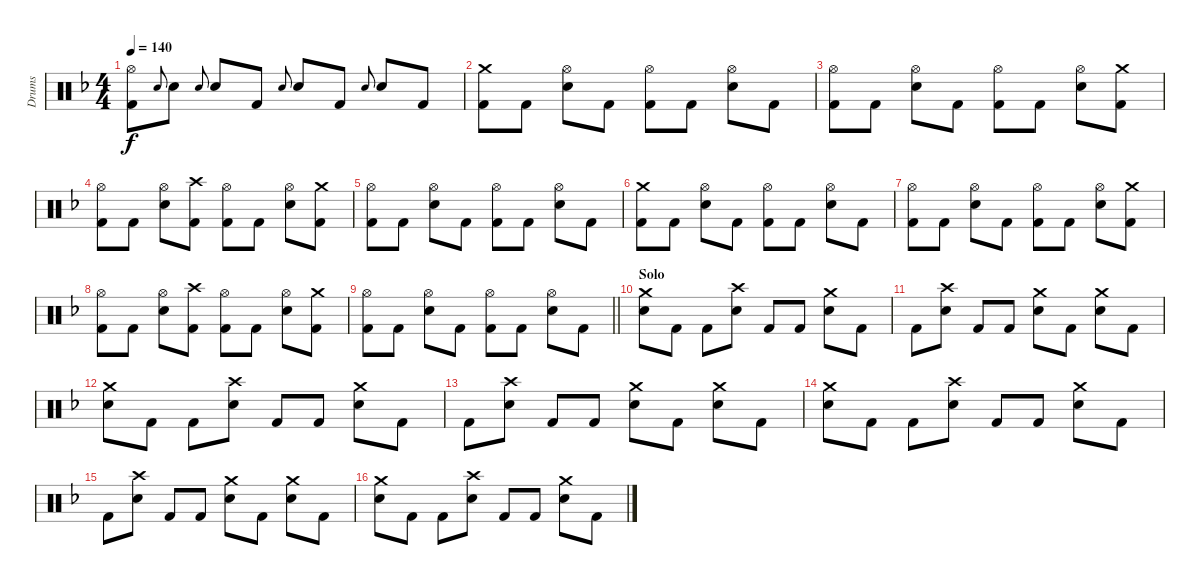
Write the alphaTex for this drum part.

\track ("Drums" "Drums") {instrument percussion}
\staff {score}
\articulation defaults
\ts (4 4)
\tempo 140
\clef neutral
\ks dminor
("Kick (hit) 2" "Hi-Hat (open)").8{dy f} "Electric Snare (hit)".8{gr onbeat} "Electric Snare (hit)".8 "Electric Snare (hit)".8{gr onbeat} "Electric Snare (hit)".8 "Kick (hit) 2".8 "Electric Snare (hit)".8{gr onbeat} "Electric Snare (hit)".8 "Kick (hit) 2".8 "Electric Snare (hit)".8{gr onbeat} "Electric Snare (hit)".8 "Kick (hit) 2".8 |
("Kick (hit) 2" "Crash medium (hit)").8 "Kick (hit) 2".8 ("Hi-Hat (open)" "Electric Snare (hit)").8 "Kick (hit) 2".8 ("Hi-Hat (open)" "Kick (hit) 2").8 "Kick (hit) 2".8 ("Hi-Hat (open)" "Electric Snare (hit)").8 "Kick (hit) 2".8 |
("Kick (hit) 2" "Hi-Hat (open)").8 "Kick (hit) 2".8 ("Hi-Hat (open)" "Electric Snare (hit)").8 "Kick (hit) 2".8 ("Hi-Hat (open)" "Kick (hit) 2").8 "Kick (hit) 2".8 ("Hi-Hat (open)" "Electric Snare (hit)").8 ("Crash medium (hit)" "Kick (hit) 2").8 |
("Kick (hit) 2" "Hi-Hat (open)").8 "Kick (hit) 2".8 ("Hi-Hat (open)" "Electric Snare (hit)").8 ("Crash high (hit)" "Kick (hit) 2").8 ("Hi-Hat (open)" "Kick (hit) 2").8 "Kick (hit) 2".8 ("Hi-Hat (open)" "Electric Snare (hit)").8 ("Crash medium (hit)" "Kick (hit) 2").8 |
("Kick (hit) 2" "Hi-Hat (open)").8 "Kick (hit) 2".8 ("Hi-Hat (open)" "Electric Snare (hit)").8 "Kick (hit) 2".8 ("Kick (hit) 2" "Hi-Hat (open)").8 "Kick (hit) 2".8 ("Hi-Hat (open)" "Electric Snare (hit)").8 "Kick (hit) 2".8 |
("Kick (hit) 2" "Crash medium (hit)").8 "Kick (hit) 2".8 ("Hi-Hat (open)" "Electric Snare (hit)").8 "Kick (hit) 2".8 ("Hi-Hat (open)" "Kick (hit) 2").8 "Kick (hit) 2".8 ("Hi-Hat (open)" "Electric Snare (hit)").8 "Kick (hit) 2".8 |
("Kick (hit) 2" "Hi-Hat (open)").8 "Kick (hit) 2".8 ("Hi-Hat (open)" "Electric Snare (hit)").8 "Kick (hit) 2".8 ("Hi-Hat (open)" "Kick (hit) 2").8 "Kick (hit) 2".8 ("Hi-Hat (open)" "Electric Snare (hit)").8 ("Crash medium (hit)" "Kick (hit) 2").8 |
("Kick (hit) 2" "Hi-Hat (open)").8 "Kick (hit) 2".8 ("Hi-Hat (open)" "Electric Snare (hit)").8 ("Crash high (hit)" "Kick (hit) 2").8 ("Hi-Hat (open)" "Kick (hit) 2").8 "Kick (hit) 2".8 ("Hi-Hat (open)" "Electric Snare (hit)").8 ("Crash medium (hit)" "Kick (hit) 2").8 |
\barLineRight lightlight
("Kick (hit) 2" "Hi-Hat (open)").8 "Kick (hit) 2".8 ("Hi-Hat (open)" "Electric Snare (hit)").8 "Kick (hit) 2".8 ("Kick (hit) 2" "Hi-Hat (open)").8 "Kick (hit) 2".8 ("Hi-Hat (open)" "Electric Snare (hit)").8 "Kick (hit) 2".8 |
\section ("" "Solo")
("Electric Snare (hit)" "Crash medium (hit)").8 "Kick (hit) 2".8 "Kick (hit) 2".8 ("Crash high (hit)" "Electric Snare (hit)").8 "Kick (hit) 2".8 "Kick (hit) 2".8 ("Electric Snare (hit)" "Crash medium (hit)").8 "Kick (hit) 2".8 |
"Kick (hit) 2".8 ("Electric Snare (hit)" "Crash high (hit)").8 "Kick (hit) 2".8 "Kick (hit) 2".8 ("Electric Snare (hit)" "Crash medium (hit)").8 "Kick (hit) 2".8 ("Electric Snare (hit)" "Crash medium (hit)").8 "Kick (hit) 2".8 |
("Electric Snare (hit)" "Crash medium (hit)").8 "Kick (hit) 2".8 "Kick (hit) 2".8 ("Crash high (hit)" "Electric Snare (hit)").8 "Kick (hit) 2".8 "Kick (hit) 2".8 ("Electric Snare (hit)" "Crash medium (hit)").8 "Kick (hit) 2".8 |
"Kick (hit) 2".8 ("Electric Snare (hit)" "Crash high (hit)").8 "Kick (hit) 2".8 "Kick (hit) 2".8 ("Electric Snare (hit)" "Crash medium (hit)").8 "Kick (hit) 2".8 ("Electric Snare (hit)" "Crash medium (hit)").8 "Kick (hit) 2".8 |
("Electric Snare (hit)" "Crash medium (hit)").8 "Kick (hit) 2".8 "Kick (hit) 2".8 ("Crash high (hit)" "Electric Snare (hit)").8 "Kick (hit) 2".8 "Kick (hit) 2".8 ("Electric Snare (hit)" "Crash medium (hit)").8 "Kick (hit) 2".8 |
"Kick (hit) 2".8 ("Electric Snare (hit)" "Crash high (hit)").8 "Kick (hit) 2".8 "Kick (hit) 2".8 ("Electric Snare (hit)" "Crash medium (hit)").8 "Kick (hit) 2".8 ("Electric Snare (hit)" "Crash medium (hit)").8 "Kick (hit) 2".8 |
("Electric Snare (hit)" "Crash medium (hit)").8 "Kick (hit) 2".8 "Kick (hit) 2".8 ("Crash high (hit)" "Electric Snare (hit)").8 "Kick (hit) 2".8 "Kick (hit) 2".8 ("Electric Snare (hit)" "Crash medium (hit)").8 "Kick (hit) 2".8
